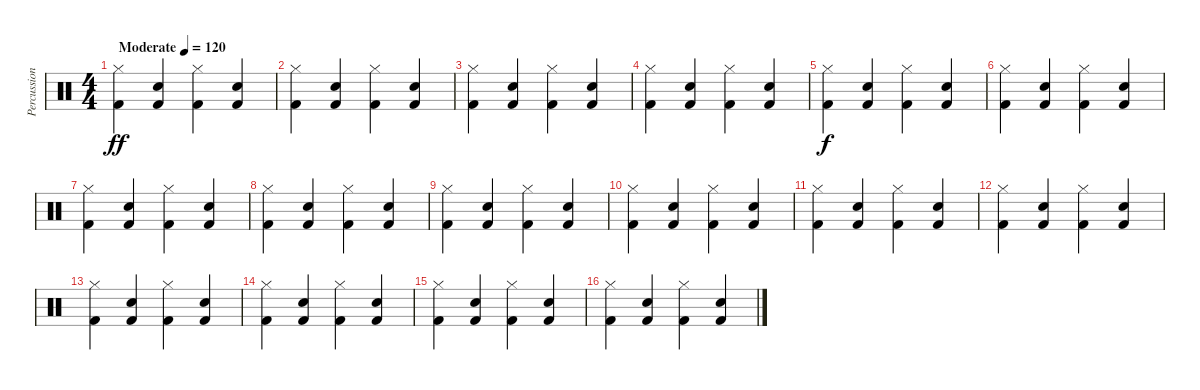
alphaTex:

\track ("Percussion" "Percussion") {instrument percussion}
\staff {score}
\articulation defaults
\ts (4 4)
\tempo (120 "Moderate")
\clef neutral
\ks c
("Hi-Hat (closed)" "Kick (hit) 2").4{dy ff} ("Snare (hit) 2" "Kick (hit) 2").4 ("Hi-Hat (closed)" "Kick (hit) 2").4 ("Snare (hit) 2" "Kick (hit) 2").4 |
("Hi-Hat (closed)" "Kick (hit) 2").4 ("Snare (hit) 2" "Kick (hit) 2").4 ("Hi-Hat (closed)" "Kick (hit) 2").4 ("Snare (hit) 2" "Kick (hit) 2").4 |
("Hi-Hat (closed)" "Kick (hit) 2").4 ("Snare (hit) 2" "Kick (hit) 2").4 ("Hi-Hat (closed)" "Kick (hit) 2").4 ("Snare (hit) 2" "Kick (hit) 2").4 |
("Hi-Hat (closed)" "Kick (hit) 2").4 ("Snare (hit) 2" "Kick (hit) 2").4 ("Hi-Hat (closed)" "Kick (hit) 2").4 ("Snare (hit) 2" "Kick (hit) 2").4 |
("Hi-Hat (closed)" "Kick (hit) 2").4{dy f} ("Snare (hit) 2" "Kick (hit) 2").4 ("Hi-Hat (closed)" "Kick (hit) 2").4 ("Snare (hit) 2" "Kick (hit) 2").4 |
("Hi-Hat (closed)" "Kick (hit) 2").4 ("Snare (hit) 2" "Kick (hit) 2").4 ("Hi-Hat (closed)" "Kick (hit) 2").4 ("Snare (hit) 2" "Kick (hit) 2").4 |
("Hi-Hat (closed)" "Kick (hit) 2").4 ("Snare (hit) 2" "Kick (hit) 2").4 ("Hi-Hat (closed)" "Kick (hit) 2").4 ("Snare (hit) 2" "Kick (hit) 2").4 |
("Hi-Hat (closed)" "Kick (hit) 2").4 ("Snare (hit) 2" "Kick (hit) 2").4 ("Hi-Hat (closed)" "Kick (hit) 2").4 ("Snare (hit) 2" "Kick (hit) 2").4 |
("Hi-Hat (closed)" "Kick (hit) 2").4 ("Snare (hit) 2" "Kick (hit) 2").4 ("Hi-Hat (closed)" "Kick (hit) 2").4 ("Snare (hit) 2" "Kick (hit) 2").4 |
("Hi-Hat (closed)" "Kick (hit) 2").4 ("Snare (hit) 2" "Kick (hit) 2").4 ("Hi-Hat (closed)" "Kick (hit) 2").4 ("Snare (hit) 2" "Kick (hit) 2").4 |
("Hi-Hat (closed)" "Kick (hit) 2").4 ("Snare (hit) 2" "Kick (hit) 2").4 ("Hi-Hat (closed)" "Kick (hit) 2").4 ("Snare (hit) 2" "Kick (hit) 2").4 |
("Hi-Hat (closed)" "Kick (hit) 2").4 ("Snare (hit) 2" "Kick (hit) 2").4 ("Hi-Hat (closed)" "Kick (hit) 2").4 ("Snare (hit) 2" "Kick (hit) 2").4 |
("Hi-Hat (closed)" "Kick (hit) 2").4 ("Snare (hit) 2" "Kick (hit) 2").4 ("Hi-Hat (closed)" "Kick (hit) 2").4 ("Snare (hit) 2" "Kick (hit) 2").4 |
("Hi-Hat (closed)" "Kick (hit) 2").4 ("Snare (hit) 2" "Kick (hit) 2").4 ("Hi-Hat (closed)" "Kick (hit) 2").4 ("Snare (hit) 2" "Kick (hit) 2").4 |
("Hi-Hat (closed)" "Kick (hit) 2").4 ("Snare (hit) 2" "Kick (hit) 2").4 ("Hi-Hat (closed)" "Kick (hit) 2").4 ("Snare (hit) 2" "Kick (hit) 2").4 |
("Hi-Hat (closed)" "Kick (hit) 2").4 ("Snare (hit) 2" "Kick (hit) 2").4 ("Hi-Hat (closed)" "Kick (hit) 2").4 ("Snare (hit) 2" "Kick (hit) 2").4
